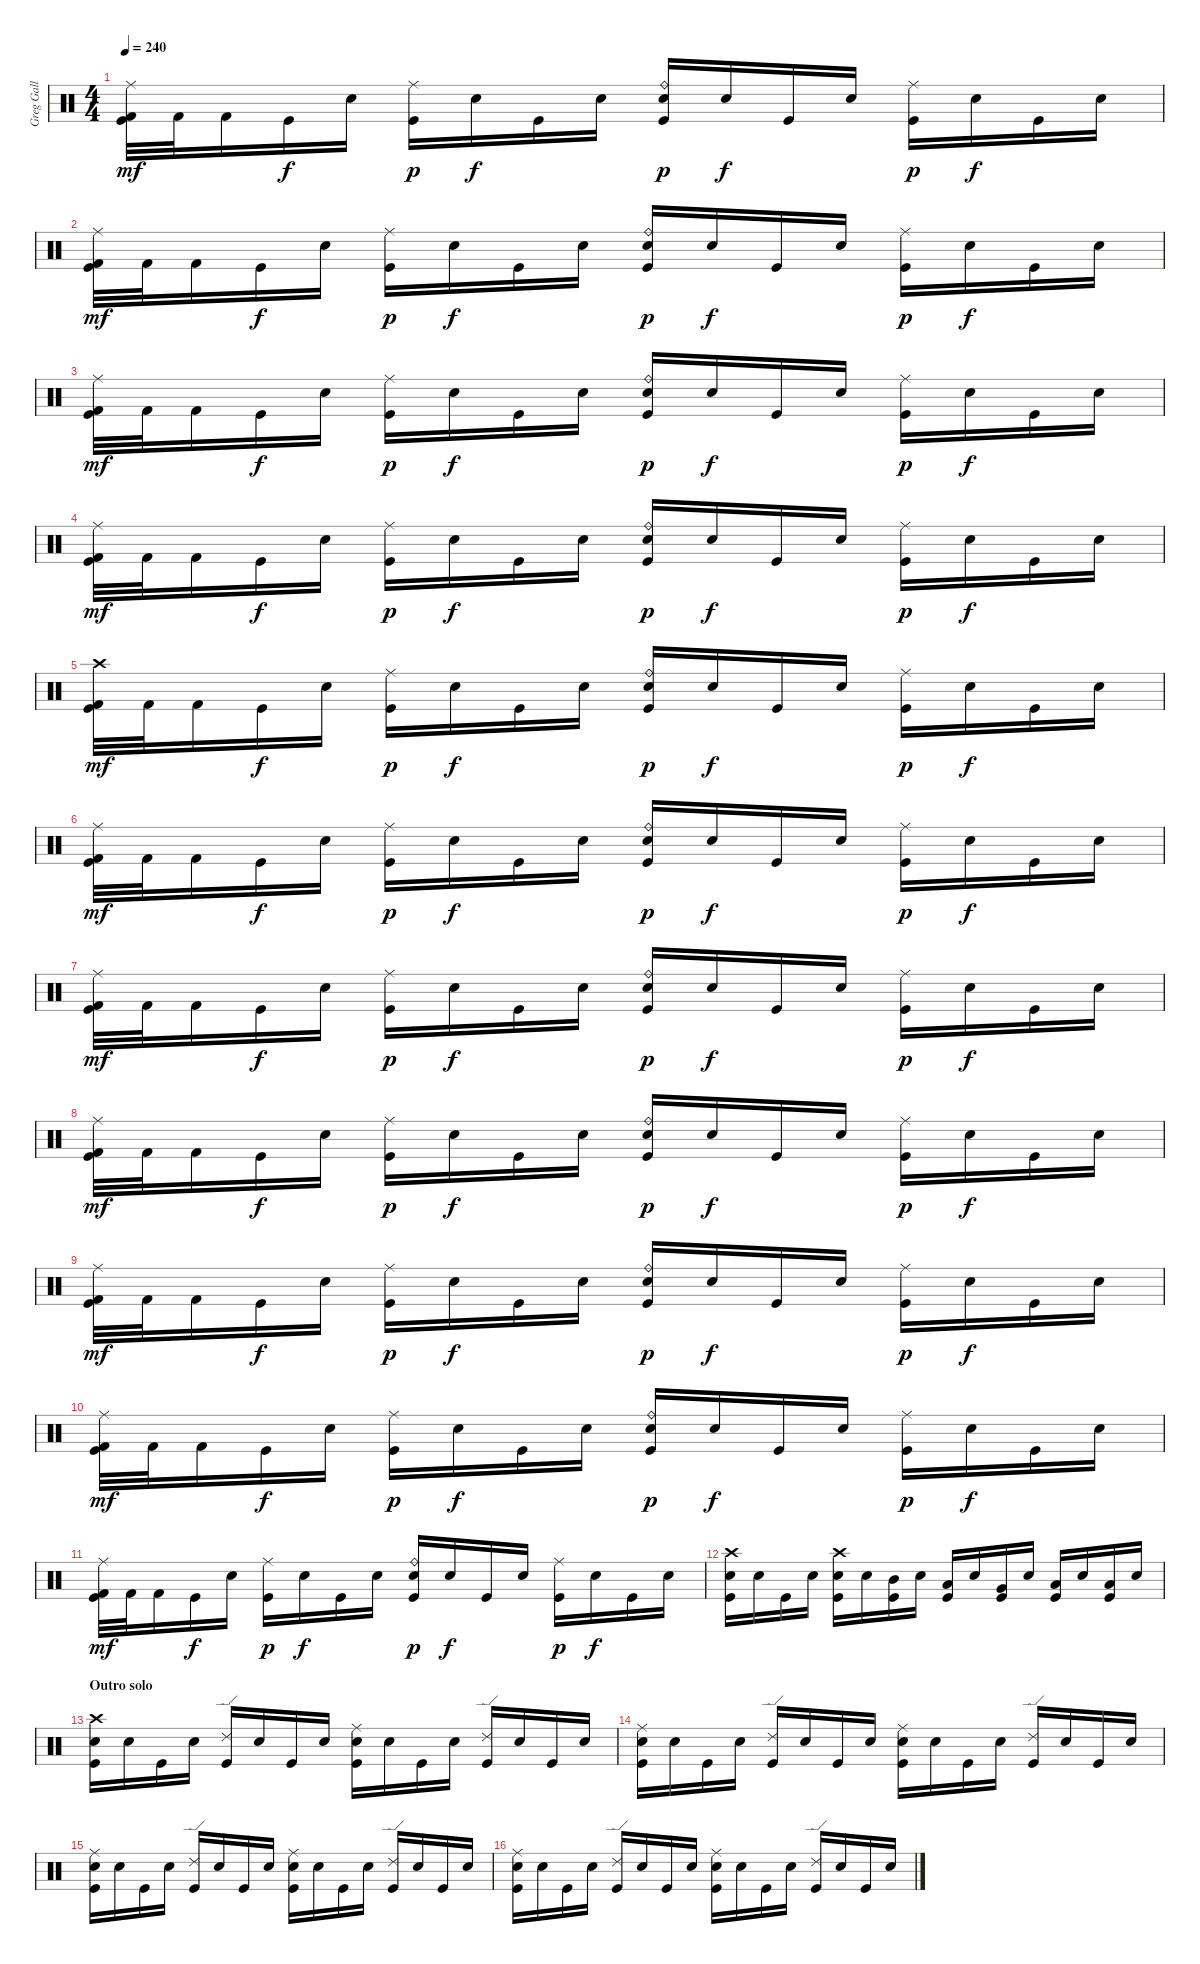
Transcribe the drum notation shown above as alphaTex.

\track ("Greg Gall - Drums" "Greg Gall ") {instrument percussion}
\staff {score}
\articulation defaults
\ts (4 4)
\tempo 240
\clef neutral
\ks c
("Ride (middle)" "Kick (hit) 2" "Kick (hit)").32{dy mf} "Kick (hit) 2".32 "Kick (hit) 2".16 "Kick (hit)".16{dy f} "Snare (hit)".16 ("Ride (middle)" "Kick (hit)").16{dy p} "Snare (hit)".16{dy f} "Kick (hit)".16 "Snare (hit)".16 ("Ride (bell)" "Electric Snare (hit)" "Kick (hit)").16{dy p} "Snare (hit)".16{dy f} "Kick (hit)".16 "Snare (hit)".16 ("Ride (middle)" "Kick (hit)").16{dy p} "Snare (hit)".16{dy f} "Kick (hit)".16 "Snare (hit)".16 |
("Ride (middle)" "Kick (hit) 2" "Kick (hit)").32{dy mf} "Kick (hit) 2".32 "Kick (hit) 2".16 "Kick (hit)".16{dy f} "Snare (hit)".16 ("Ride (middle)" "Kick (hit)").16{dy p} "Snare (hit)".16{dy f} "Kick (hit)".16 "Snare (hit)".16 ("Ride (bell)" "Electric Snare (hit)" "Kick (hit)").16{dy p} "Snare (hit)".16{dy f} "Kick (hit)".16 "Snare (hit)".16 ("Ride (middle)" "Kick (hit)").16{dy p} "Snare (hit)".16{dy f} "Kick (hit)".16 "Snare (hit)".16 |
("Ride (middle)" "Kick (hit) 2" "Kick (hit)").32{dy mf} "Kick (hit) 2".32 "Kick (hit) 2".16 "Kick (hit)".16{dy f} "Snare (hit)".16 ("Ride (middle)" "Kick (hit)").16{dy p} "Snare (hit)".16{dy f} "Kick (hit)".16 "Snare (hit)".16 ("Ride (bell)" "Electric Snare (hit)" "Kick (hit)").16{dy p} "Snare (hit)".16{dy f} "Kick (hit)".16 "Snare (hit)".16 ("Ride (middle)" "Kick (hit)").16{dy p} "Snare (hit)".16{dy f} "Kick (hit)".16 "Snare (hit)".16 |
("Ride (middle)" "Kick (hit) 2" "Kick (hit)").32{dy mf} "Kick (hit) 2".32 "Kick (hit) 2".16 "Kick (hit)".16{dy f} "Snare (hit)".16 ("Ride (middle)" "Kick (hit)").16{dy p} "Snare (hit)".16{dy f} "Kick (hit)".16 "Snare (hit)".16 ("Ride (bell)" "Electric Snare (hit)" "Kick (hit)").16{dy p} "Snare (hit)".16{dy f} "Kick (hit)".16 "Snare (hit)".16 ("Ride (middle)" "Kick (hit)").16{dy p} "Snare (hit)".16{dy f} "Kick (hit)".16 "Snare (hit)".16 |
("Crash high (hit)" "Kick (hit) 2" "Kick (hit)").32{dy mf} "Kick (hit) 2".32 "Kick (hit) 2".16 "Kick (hit)".16{dy f} "Snare (hit)".16 ("Ride (middle)" "Kick (hit)").16{dy p} "Snare (hit)".16{dy f} "Kick (hit)".16 "Snare (hit)".16 ("Ride (bell)" "Electric Snare (hit)" "Kick (hit)").16{dy p} "Snare (hit)".16{dy f} "Kick (hit)".16 "Snare (hit)".16 ("Ride (middle)" "Kick (hit)").16{dy p} "Snare (hit)".16{dy f} "Kick (hit)".16 "Snare (hit)".16 |
("Ride (middle)" "Kick (hit) 2" "Kick (hit)").32{dy mf} "Kick (hit) 2".32 "Kick (hit) 2".16 "Kick (hit)".16{dy f} "Snare (hit)".16 ("Ride (middle)" "Kick (hit)").16{dy p} "Snare (hit)".16{dy f} "Kick (hit)".16 "Snare (hit)".16 ("Ride (bell)" "Electric Snare (hit)" "Kick (hit)").16{dy p} "Snare (hit)".16{dy f} "Kick (hit)".16 "Snare (hit)".16 ("Ride (middle)" "Kick (hit)").16{dy p} "Snare (hit)".16{dy f} "Kick (hit)".16 "Snare (hit)".16 |
("Ride (middle)" "Kick (hit) 2" "Kick (hit)").32{dy mf} "Kick (hit) 2".32 "Kick (hit) 2".16 "Kick (hit)".16{dy f} "Snare (hit)".16 ("Ride (middle)" "Kick (hit)").16{dy p} "Snare (hit)".16{dy f} "Kick (hit)".16 "Snare (hit)".16 ("Ride (bell)" "Electric Snare (hit)" "Kick (hit)").16{dy p} "Snare (hit)".16{dy f} "Kick (hit)".16 "Snare (hit)".16 ("Ride (middle)" "Kick (hit)").16{dy p} "Snare (hit)".16{dy f} "Kick (hit)".16 "Snare (hit)".16 |
("Ride (middle)" "Kick (hit) 2" "Kick (hit)").32{dy mf} "Kick (hit) 2".32 "Kick (hit) 2".16 "Kick (hit)".16{dy f} "Snare (hit)".16 ("Ride (middle)" "Kick (hit)").16{dy p} "Snare (hit)".16{dy f} "Kick (hit)".16 "Snare (hit)".16 ("Ride (bell)" "Electric Snare (hit)" "Kick (hit)").16{dy p} "Snare (hit)".16{dy f} "Kick (hit)".16 "Snare (hit)".16 ("Ride (middle)" "Kick (hit)").16{dy p} "Snare (hit)".16{dy f} "Kick (hit)".16 "Snare (hit)".16 |
("Ride (middle)" "Kick (hit) 2" "Kick (hit)").32{dy mf} "Kick (hit) 2".32 "Kick (hit) 2".16 "Kick (hit)".16{dy f} "Snare (hit)".16 ("Ride (middle)" "Kick (hit)").16{dy p} "Snare (hit)".16{dy f} "Kick (hit)".16 "Snare (hit)".16 ("Ride (bell)" "Electric Snare (hit)" "Kick (hit)").16{dy p} "Snare (hit)".16{dy f} "Kick (hit)".16 "Snare (hit)".16 ("Ride (middle)" "Kick (hit)").16{dy p} "Snare (hit)".16{dy f} "Kick (hit)".16 "Snare (hit)".16 |
("Ride (middle)" "Kick (hit) 2" "Kick (hit)").32{dy mf} "Kick (hit) 2".32 "Kick (hit) 2".16 "Kick (hit)".16{dy f} "Snare (hit)".16 ("Ride (middle)" "Kick (hit)").16{dy p} "Snare (hit)".16{dy f} "Kick (hit)".16 "Snare (hit)".16 ("Ride (bell)" "Electric Snare (hit)" "Kick (hit)").16{dy p} "Snare (hit)".16{dy f} "Kick (hit)".16 "Snare (hit)".16 ("Ride (middle)" "Kick (hit)").16{dy p} "Snare (hit)".16{dy f} "Kick (hit)".16 "Snare (hit)".16 |
("Ride (middle)" "Kick (hit) 2" "Kick (hit)").32{dy mf} "Kick (hit) 2".32 "Kick (hit) 2".16 "Kick (hit)".16{dy f} "Snare (hit)".16 ("Ride (middle)" "Kick (hit)").16{dy p} "Snare (hit)".16{dy f} "Kick (hit)".16 "Snare (hit)".16 ("Ride (bell)" "Electric Snare (hit)" "Kick (hit)").16{dy p} "Snare (hit)".16{dy f} "Kick (hit)".16 "Snare (hit)".16 ("Ride (middle)" "Kick (hit)").16{dy p} "Snare (hit)".16{dy f} "Kick (hit)".16 "Snare (hit)".16 |
("Crash high (hit)" "Electric Snare (hit)" "Kick (hit)").16 "Snare (hit)".16 "Kick (hit)".16 "Snare (hit)".16 ("Crash high (hit)" "Electric Snare (hit)" "Kick (hit)").16 "Snare (hit)".16 ("Mid Tom (hit)" "Kick (hit)").16 "Snare (hit)".16 ("Low Tom (hit)" "Kick (hit)").16 "Snare (hit)".16 ("Very Low Tom (hit)" "Kick (hit)").16 "Snare (hit)".16 ("Low Floor Tom (hit)" "Kick (hit)").16 "Snare (hit)".16 ("Low Floor Tom (hit)" "Kick (hit)").16 "Snare (hit)".16 |
\section ("" "Outro solo")
("Crash high (hit)" "Electric Snare (hit)" "Kick (hit)").16{volume 16 balance 8} "Snare (hit)".16 "Kick (hit)".16 "Snare (hit)".16 ("Ride (edge) 2" "Kick (hit)").16 "Snare (hit)".16 "Kick (hit)".16 "Snare (hit)".16 ("Ride (middle)" "Electric Snare (hit)" "Kick (hit)").16 "Snare (hit)".16 "Kick (hit)".16 "Snare (hit)".16 ("Ride (edge) 2" "Kick (hit)").16 "Snare (hit)".16 "Kick (hit)".16 "Snare (hit)".16 |
("Ride (middle)" "Electric Snare (hit)" "Kick (hit)").16 "Snare (hit)".16 "Kick (hit)".16 "Snare (hit)".16 ("Ride (edge) 2" "Kick (hit)").16 "Snare (hit)".16 "Kick (hit)".16 "Snare (hit)".16 ("Ride (middle)" "Electric Snare (hit)" "Kick (hit)").16 "Snare (hit)".16 "Kick (hit)".16 "Snare (hit)".16 ("Ride (edge) 2" "Kick (hit)").16 "Snare (hit)".16 "Kick (hit)".16 "Snare (hit)".16 |
("Ride (middle)" "Electric Snare (hit)" "Kick (hit)").16 "Snare (hit)".16 "Kick (hit)".16 "Snare (hit)".16 ("Ride (edge) 2" "Kick (hit)").16 "Snare (hit)".16 "Kick (hit)".16 "Snare (hit)".16 ("Ride (middle)" "Electric Snare (hit)" "Kick (hit)").16 "Snare (hit)".16 "Kick (hit)".16 "Snare (hit)".16 ("Ride (edge) 2" "Kick (hit)").16 "Snare (hit)".16 "Kick (hit)".16 "Snare (hit)".16 |
("Ride (middle)" "Electric Snare (hit)" "Kick (hit)").16 "Snare (hit)".16 "Kick (hit)".16 "Snare (hit)".16 ("Ride (edge) 2" "Kick (hit)").16 "Snare (hit)".16 "Kick (hit)".16 "Snare (hit)".16 ("Ride (middle)" "Electric Snare (hit)" "Kick (hit)").16 "Snare (hit)".16 "Kick (hit)".16 "Snare (hit)".16 ("Ride (edge) 2" "Kick (hit)").16 "Snare (hit)".16 "Kick (hit)".16 "Snare (hit)".16
